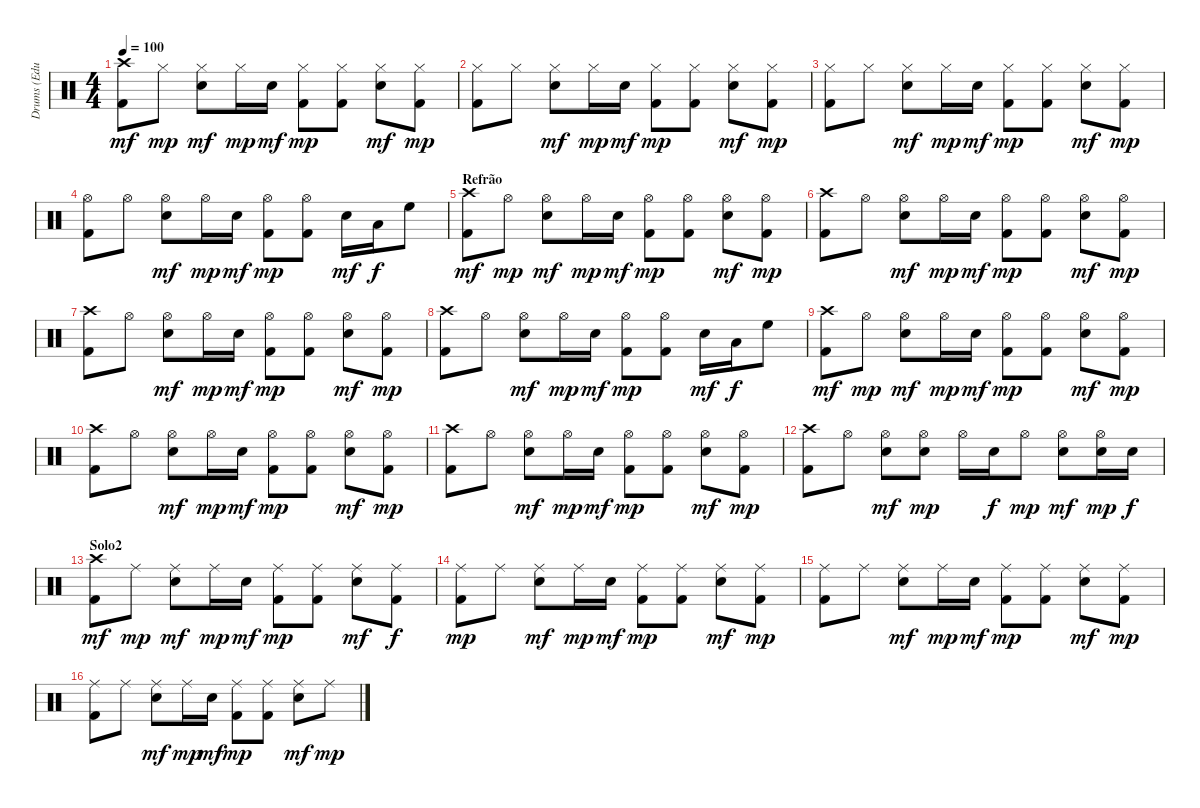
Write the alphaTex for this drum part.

\track ("Drums (Eduardo)" "Drums (Edu") {instrument percussion}
\staff {score}
\articulation defaults
\ts (4 4)
\tempo 100
\clef neutral
\ks c
("Crash high (hit)" "Kick (hit) 2").8{dy mf} "Hi-Hat (closed)".8{dy mp} ("Hi-Hat (closed)" "Electric Snare (hit)").8{dy mf} "Hi-Hat (closed)".16{dy mp} "Electric Snare (hit)".16{dy mf} ("Hi-Hat (closed)" "Kick (hit) 2").8{dy mp} ("Hi-Hat (closed)" "Kick (hit) 2").8 ("Hi-Hat (closed)" "Electric Snare (hit)").8{dy mf} ("Hi-Hat (closed)" "Kick (hit) 2").8{dy mp} |
("Hi-Hat (closed)" "Kick (hit) 2").8 "Hi-Hat (closed)".8 ("Hi-Hat (closed)" "Electric Snare (hit)").8{dy mf} "Hi-Hat (closed)".16{dy mp} "Electric Snare (hit)".16{dy mf} ("Hi-Hat (closed)" "Kick (hit) 2").8{dy mp} ("Hi-Hat (closed)" "Kick (hit) 2").8 ("Hi-Hat (closed)" "Electric Snare (hit)").8{dy mf} ("Hi-Hat (closed)" "Kick (hit) 2").8{dy mp} |
("Hi-Hat (closed)" "Kick (hit) 2").8 "Hi-Hat (closed)".8 ("Hi-Hat (closed)" "Electric Snare (hit)").8{dy mf} "Hi-Hat (closed)".16{dy mp} "Electric Snare (hit)".16{dy mf} ("Hi-Hat (closed)" "Kick (hit) 2").8{dy mp} ("Hi-Hat (closed)" "Kick (hit) 2").8 ("Hi-Hat (closed)" "Electric Snare (hit)").8{dy mf} ("Hi-Hat (closed)" "Kick (hit) 2").8{dy mp} |
("Hi-Hat (open)" "Kick (hit) 2").8 "Hi-Hat (open)".8 ("Hi-Hat (open)" "Electric Snare (hit)").8{dy mf} "Hi-Hat (open)".16{dy mp} "Electric Snare (hit)".16{dy mf} ("Hi-Hat (open)" "Kick (hit) 2").8{dy mp} ("Hi-Hat (open)" "Kick (hit) 2").8 "Electric Snare (hit)".16{dy mf} "Low Tom (hit)".16{dy f} "High Floor Tom (hit)".8 |
\section ("" "Refrão")
("Crash high (hit)" "Kick (hit) 2").8{dy mf} "Hi-Hat (open)".8{dy mp} ("Hi-Hat (open)" "Electric Snare (hit)").8{dy mf} "Hi-Hat (open)".16{dy mp} "Electric Snare (hit)".16{dy mf} ("Hi-Hat (open)" "Kick (hit) 2").8{dy mp} ("Hi-Hat (open)" "Kick (hit) 2").8 ("Hi-Hat (open)" "Electric Snare (hit)").8{dy mf} ("Hi-Hat (open)" "Kick (hit) 2").8{dy mp} |
("Crash high (hit)" "Kick (hit) 2").8 "Hi-Hat (open)".8 ("Hi-Hat (open)" "Electric Snare (hit)").8{dy mf} "Hi-Hat (open)".16{dy mp} "Electric Snare (hit)".16{dy mf} ("Hi-Hat (open)" "Kick (hit) 2").8{dy mp} ("Hi-Hat (open)" "Kick (hit) 2").8 ("Hi-Hat (open)" "Electric Snare (hit)").8{dy mf} ("Hi-Hat (open)" "Kick (hit) 2").8{dy mp} |
("Crash high (hit)" "Kick (hit) 2").8 "Hi-Hat (open)".8 ("Hi-Hat (open)" "Electric Snare (hit)").8{dy mf} "Hi-Hat (open)".16{dy mp} "Electric Snare (hit)".16{dy mf} ("Hi-Hat (open)" "Kick (hit) 2").8{dy mp} ("Hi-Hat (open)" "Kick (hit) 2").8 ("Hi-Hat (open)" "Electric Snare (hit)").8{dy mf} ("Hi-Hat (open)" "Kick (hit) 2").8{dy mp} |
("Crash high (hit)" "Kick (hit) 2").8 "Hi-Hat (open)".8 ("Hi-Hat (open)" "Electric Snare (hit)").8{dy mf} "Hi-Hat (open)".16{dy mp} "Electric Snare (hit)".16{dy mf} ("Hi-Hat (open)" "Kick (hit) 2").8{dy mp} ("Hi-Hat (open)" "Kick (hit) 2").8 "Electric Snare (hit)".16{dy mf} "Low Tom (hit)".16{dy f} "High Floor Tom (hit)".8 |
("Crash high (hit)" "Kick (hit) 2").8{dy mf} "Hi-Hat (open)".8{dy mp} ("Hi-Hat (open)" "Electric Snare (hit)").8{dy mf} "Hi-Hat (open)".16{dy mp} "Electric Snare (hit)".16{dy mf} ("Hi-Hat (open)" "Kick (hit) 2").8{dy mp} ("Hi-Hat (open)" "Kick (hit) 2").8 ("Hi-Hat (open)" "Electric Snare (hit)").8{dy mf} ("Hi-Hat (open)" "Kick (hit) 2").8{dy mp} |
("Crash high (hit)" "Kick (hit) 2").8 "Hi-Hat (open)".8 ("Hi-Hat (open)" "Electric Snare (hit)").8{dy mf} "Hi-Hat (open)".16{dy mp} "Electric Snare (hit)".16{dy mf} ("Hi-Hat (open)" "Kick (hit) 2").8{dy mp} ("Hi-Hat (open)" "Kick (hit) 2").8 ("Hi-Hat (open)" "Electric Snare (hit)").8{dy mf} ("Hi-Hat (open)" "Kick (hit) 2").8{dy mp} |
("Crash high (hit)" "Kick (hit) 2").8 "Hi-Hat (open)".8 ("Hi-Hat (open)" "Electric Snare (hit)").8{dy mf} "Hi-Hat (open)".16{dy mp} "Electric Snare (hit)".16{dy mf} ("Hi-Hat (open)" "Kick (hit) 2").8{dy mp} ("Hi-Hat (open)" "Kick (hit) 2").8 ("Hi-Hat (open)" "Electric Snare (hit)").8{dy mf} ("Hi-Hat (open)" "Kick (hit) 2").8{dy mp} |
("Crash high (hit)" "Kick (hit) 2").8 "Hi-Hat (open)".8 ("Hi-Hat (open)" "Electric Snare (hit)").8{dy mf} ("Hi-Hat (open)" "Electric Snare (hit)").8{dy mp} "Hi-Hat (open)".16 "Electric Snare (hit)".16{dy f} "Hi-Hat (open)".8{dy mp} ("Hi-Hat (open)" "Electric Snare (hit)").8{dy mf} ("Hi-Hat (open)" "Electric Snare (hit)").16{dy mp} "Electric Snare (hit)".16{dy f} |
\section ("" "Solo2")
("Crash high (hit)" "Kick (hit) 2").8{dy mf} "Ride (middle)".8{dy mp} ("Ride (middle)" "Electric Snare (hit)").8{dy mf} "Ride (middle)".16{dy mp} "Electric Snare (hit)".16{dy mf} ("Ride (middle)" "Kick (hit) 2").8{dy mp} ("Ride (middle)" "Kick (hit) 2").8 ("Ride (middle)" "Electric Snare (hit)").8{dy mf} ("Ride (middle)" "Kick (hit) 2").8{dy f} |
("Ride (middle)" "Kick (hit) 2").8{dy mp} "Ride (middle)".8 ("Ride (middle)" "Electric Snare (hit)").8{dy mf} "Ride (middle)".16{dy mp} "Electric Snare (hit)".16{dy mf} ("Ride (middle)" "Kick (hit) 2").8{dy mp} ("Ride (middle)" "Kick (hit) 2").8 ("Ride (middle)" "Electric Snare (hit)").8{dy mf} ("Ride (middle)" "Kick (hit) 2").8{dy mp} |
("Ride (middle)" "Kick (hit) 2").8 "Ride (middle)".8 ("Ride (middle)" "Electric Snare (hit)").8{dy mf} "Ride (middle)".16{dy mp} "Electric Snare (hit)".16{dy mf} ("Ride (middle)" "Kick (hit) 2").8{dy mp} ("Ride (middle)" "Kick (hit) 2").8 ("Ride (middle)" "Electric Snare (hit)").8{dy mf} ("Ride (middle)" "Kick (hit) 2").8{dy mp} |
("Ride (middle)" "Kick (hit) 2").8 "Ride (middle)".8 ("Ride (middle)" "Electric Snare (hit)").8{dy mf} "Ride (middle)".16{dy mp} "Electric Snare (hit)".16{dy mf} ("Ride (middle)" "Kick (hit) 2").8{dy mp} ("Ride (middle)" "Kick (hit) 2").8 ("Ride (middle)" "Electric Snare (hit)").8{dy mf} "Ride (middle)".8{dy mp}
